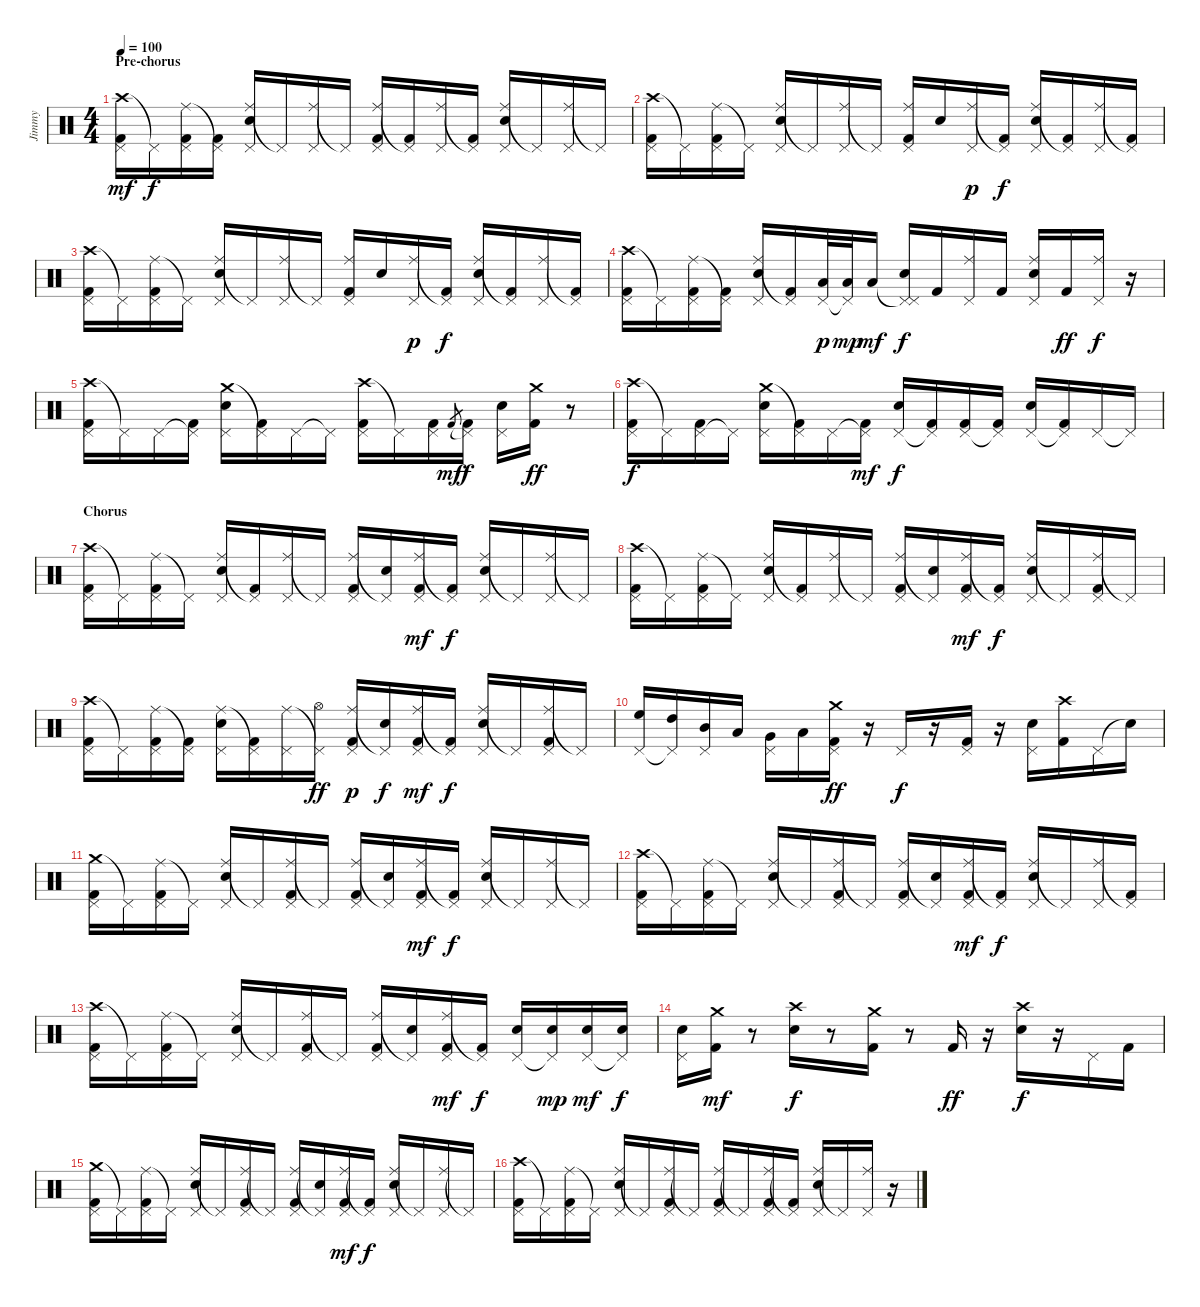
\track ("Jimmy" "Jimmy") {instrument percussion}
\staff {score}
\articulation defaults
\ts (4 4)
\section ("" "Pre-chorus")
\tempo 100
\clef neutral
\ks c
("Crash high (hit)" "Pedal Hi-Hat (hit)" "Kick (hit) 2").16{dy mf} "Pedal Hi-Hat (hit)"{t}.16{dy f} ("Ride (middle)" "Pedal Hi-Hat (hit)" "Kick (hit) 2").16 ("Pedal Hi-Hat (hit)"{t} "Kick (hit) 2").16 ("Ride (middle)" "Pedal Hi-Hat (hit)" "Electric Snare (hit)").16 "Pedal Hi-Hat (hit)"{t}.16 ("Ride (middle)" "Pedal Hi-Hat (hit)").16 "Pedal Hi-Hat (hit)"{t}.16 ("Ride (middle)" "Pedal Hi-Hat (hit)" "Kick (hit) 2").16 ("Pedal Hi-Hat (hit)"{t} "Kick (hit) 2").16 ("Ride (middle)" "Pedal Hi-Hat (hit)").16 ("Pedal Hi-Hat (hit)"{t} "Kick (hit) 2").16 ("Ride (middle)" "Pedal Hi-Hat (hit)" "Electric Snare (hit)").16 "Pedal Hi-Hat (hit)"{t}.16 ("Ride (middle)" "Pedal Hi-Hat (hit)").16 "Pedal Hi-Hat (hit)"{t}.16 |
("Crash high (hit)" "Pedal Hi-Hat (hit)" "Kick (hit) 2").16 "Pedal Hi-Hat (hit)"{t}.16 ("Ride (middle)" "Pedal Hi-Hat (hit)" "Kick (hit) 2").16 "Pedal Hi-Hat (hit)"{t}.16 ("Ride (middle)" "Pedal Hi-Hat (hit)" "Electric Snare (hit)").16 "Pedal Hi-Hat (hit)"{t}.16 ("Ride (middle)" "Pedal Hi-Hat (hit)").16 "Pedal Hi-Hat (hit)"{t}.16 ("Ride (middle)" "Pedal Hi-Hat (hit)" "Kick (hit) 2").16 "Electric Snare (hit)".16 ("Ride (middle)" "Pedal Hi-Hat (hit)").16{dy p} ("Pedal Hi-Hat (hit)"{t} "Kick (hit) 2").16{dy f} ("Ride (middle)" "Pedal Hi-Hat (hit)" "Electric Snare (hit)").16 ("Pedal Hi-Hat (hit)"{t} "Kick (hit) 2").16 ("Ride (middle)" "Pedal Hi-Hat (hit)").16 ("Pedal Hi-Hat (hit)"{t} "Kick (hit) 2").16 |
("Crash high (hit)" "Pedal Hi-Hat (hit)" "Kick (hit) 2").16 "Pedal Hi-Hat (hit)"{t}.16 ("Ride (middle)" "Pedal Hi-Hat (hit)" "Kick (hit) 2").16 "Pedal Hi-Hat (hit)"{t}.16 ("Ride (middle)" "Pedal Hi-Hat (hit)" "Electric Snare (hit)").16 "Pedal Hi-Hat (hit)"{t}.16 ("Ride (middle)" "Pedal Hi-Hat (hit)").16 "Pedal Hi-Hat (hit)"{t}.16 ("Ride (middle)" "Pedal Hi-Hat (hit)" "Kick (hit) 2").16 "Electric Snare (hit)".16 ("Ride (middle)" "Pedal Hi-Hat (hit)").16{dy p} ("Pedal Hi-Hat (hit)"{t} "Kick (hit) 2").16{dy f} ("Ride (middle)" "Pedal Hi-Hat (hit)" "Electric Snare (hit)").16 ("Pedal Hi-Hat (hit)"{t} "Kick (hit) 2").16 ("Ride (middle)" "Pedal Hi-Hat (hit)").16 ("Pedal Hi-Hat (hit)"{t} "Kick (hit) 2").16 |
("Crash high (hit)" "Pedal Hi-Hat (hit)" "Kick (hit) 2").16 "Pedal Hi-Hat (hit)"{t}.16 ("Ride (middle)" "Pedal Hi-Hat (hit)" "Kick (hit) 2").16 ("Pedal Hi-Hat (hit)"{t} "Kick (hit) 2").16 ("Ride (middle)" "Pedal Hi-Hat (hit)" "Electric Snare (hit)").16 ("Pedal Hi-Hat (hit)"{t} "Kick (hit) 2").16 ("Pedal Hi-Hat (hit)" "Low Tom (hit)").32{dy p} ("Pedal Hi-Hat (hit)"{t} "Low Tom (hit)").32{dy mp} "Low Tom (hit)".16{dy mf} ("Pedal Hi-Hat (hit)"{t} "Pedal Hi-Hat (hit)" "Electric Snare (hit)").16{dy f} "Kick (hit) 2".16 ("Ride (middle)" "Pedal Hi-Hat (hit)").16 "Kick (hit) 2".16 ("Ride (middle)" "Pedal Hi-Hat (hit)" "Electric Snare (hit)").16 "Kick (hit) 2".16{dy ff} ("Ride (middle)" "Pedal Hi-Hat (hit)").16{dy f} r.16 |
("Crash high (hit)" "Pedal Hi-Hat (hit)" "Kick (hit) 2").16 "Pedal Hi-Hat (hit)"{t}.16 "Pedal Hi-Hat (hit)".16 ("Pedal Hi-Hat (hit)"{t} "Kick (hit) 2").16 ("Crash medium (hit)" "Pedal Hi-Hat (hit)" "Electric Snare (hit)").16 ("Pedal Hi-Hat (hit)"{t} "Kick (hit) 2").16 "Pedal Hi-Hat (hit)".16 "Pedal Hi-Hat (hit)"{t}.16 ("Crash high (hit)" "Pedal Hi-Hat (hit)" "Kick (hit) 2").16 "Pedal Hi-Hat (hit)"{t}.16 ("Pedal Hi-Hat (hit)" "Kick (hit) 2").16 "Kick (hit) 2".8{gr dy mf} ("Pedal Hi-Hat (hit)"{t} "Kick (hit) 2").16{dy f} ("Pedal Hi-Hat (hit)" "Electric Snare (hit)").16 ("Crash medium (hit)" "Kick (hit) 2").16{dy ff} r.8 |
("Crash high (hit)" "Pedal Hi-Hat (hit)" "Kick (hit) 2").16{dy f} "Pedal Hi-Hat (hit)"{t}.16 ("Pedal Hi-Hat (hit)" "Kick (hit) 2").16 "Pedal Hi-Hat (hit)"{t}.16 ("Crash medium (hit)" "Pedal Hi-Hat (hit)" "Electric Snare (hit)").16 ("Pedal Hi-Hat (hit)"{t} "Kick (hit) 2").16 "Pedal Hi-Hat (hit)".16 ("Pedal Hi-Hat (hit)"{t} "Kick (hit) 2").16{dy mf} ("Pedal Hi-Hat (hit)" "Electric Snare (hit)").16{dy f} ("Pedal Hi-Hat (hit)"{t} "Kick (hit) 2").16 ("Pedal Hi-Hat (hit)" "Kick (hit) 2").16 ("Pedal Hi-Hat (hit)"{t} "Kick (hit) 2").16 ("Pedal Hi-Hat (hit)" "Electric Snare (hit)").16 ("Pedal Hi-Hat (hit)"{t} "Kick (hit) 2").16 "Pedal Hi-Hat (hit)".16 "Pedal Hi-Hat (hit)"{t}.16 |
\section ("" "Chorus")
("Crash high (hit)" "Pedal Hi-Hat (hit)" "Kick (hit) 2").16 "Pedal Hi-Hat (hit)"{t}.16 ("Ride (middle)" "Pedal Hi-Hat (hit)" "Kick (hit) 2").16 "Pedal Hi-Hat (hit)"{t}.16 ("Ride (middle)" "Pedal Hi-Hat (hit)" "Electric Snare (hit)").16 ("Pedal Hi-Hat (hit)"{t} "Kick (hit) 2").16 ("Ride (middle)" "Pedal Hi-Hat (hit)").16 "Pedal Hi-Hat (hit)"{t}.16 ("Ride (middle)" "Pedal Hi-Hat (hit)" "Kick (hit) 2").16 ("Pedal Hi-Hat (hit)"{t} "Electric Snare (hit)").16 ("Ride (middle)" "Pedal Hi-Hat (hit)" "Kick (hit) 2").16{dy mf} ("Pedal Hi-Hat (hit)"{t} "Kick (hit) 2").16{dy f} ("Ride (middle)" "Pedal Hi-Hat (hit)" "Electric Snare (hit)").16 "Pedal Hi-Hat (hit)"{t}.16 ("Ride (middle)" "Pedal Hi-Hat (hit)").16 "Pedal Hi-Hat (hit)"{t}.16 |
("Crash high (hit)" "Pedal Hi-Hat (hit)" "Kick (hit) 2").16 "Pedal Hi-Hat (hit)"{t}.16 ("Ride (middle)" "Pedal Hi-Hat (hit)" "Kick (hit) 2").16 "Pedal Hi-Hat (hit)"{t}.16 ("Ride (middle)" "Pedal Hi-Hat (hit)" "Electric Snare (hit)").16 ("Pedal Hi-Hat (hit)"{t} "Kick (hit) 2").16 ("Ride (middle)" "Pedal Hi-Hat (hit)").16 "Pedal Hi-Hat (hit)"{t}.16 ("Ride (middle)" "Pedal Hi-Hat (hit)" "Kick (hit) 2").16 ("Pedal Hi-Hat (hit)"{t} "Electric Snare (hit)").16 ("Ride (middle)" "Pedal Hi-Hat (hit)" "Kick (hit) 2").16{dy mf} ("Pedal Hi-Hat (hit)"{t} "Kick (hit) 2").16{dy f} ("Ride (middle)" "Pedal Hi-Hat (hit)" "Electric Snare (hit)").16 "Pedal Hi-Hat (hit)"{t}.16 ("Ride (middle)" "Pedal Hi-Hat (hit)" "Kick (hit) 2").16 "Pedal Hi-Hat (hit)"{t}.16 |
("Crash high (hit)" "Pedal Hi-Hat (hit)" "Kick (hit) 2").16 "Pedal Hi-Hat (hit)"{t}.16 ("Ride (middle)" "Pedal Hi-Hat (hit)" "Kick (hit) 2").16 ("Pedal Hi-Hat (hit)"{t} "Kick (hit) 2").16 ("Ride (middle)" "Pedal Hi-Hat (hit)" "Electric Snare (hit)").16 ("Pedal Hi-Hat (hit)"{t} "Kick (hit) 2").16 ("Ride (middle)" "Pedal Hi-Hat (hit)").16 ("Pedal Hi-Hat (hit)"{t} "Hi-Hat (open)").16{dy ff} ("Ride (middle)" "Pedal Hi-Hat (hit)" "Kick (hit) 2").16{dy p} ("Pedal Hi-Hat (hit)"{t} "Electric Snare (hit)").16{dy f} ("Ride (middle)" "Pedal Hi-Hat (hit)" "Kick (hit) 2").16{dy mf} ("Pedal Hi-Hat (hit)"{t} "Kick (hit) 2").16{dy f} ("Ride (middle)" "Pedal Hi-Hat (hit)" "Electric Snare (hit)").16 "Pedal Hi-Hat (hit)"{t}.16 ("Ride (middle)" "Pedal Hi-Hat (hit)" "Kick (hit) 2").16 "Pedal Hi-Hat (hit)"{t}.16 |
("Pedal Hi-Hat (hit)" "High Floor Tom (hit)").16 ("Pedal Hi-Hat (hit)"{t} "High Tom (hit)").16 ("Pedal Hi-Hat (hit)" "Mid Tom (hit)").16 "Low Tom (hit)".16 ("Pedal Hi-Hat (hit)" "Very Low Tom (hit)").16 "Low Floor Tom (hit)".16 ("Crash medium (hit)" "Pedal Hi-Hat (hit)" "Kick (hit) 2").16{dy ff} r.16 "Pedal Hi-Hat (hit)".16{dy f} r.16 ("Pedal Hi-Hat (hit)" "Kick (hit) 2").16 r.16 ("Pedal Hi-Hat (hit)" "Electric Snare (hit)").16 ("Crash high (hit)" "Kick (hit) 2").16 "Pedal Hi-Hat (hit)".16 "Snare (hit)"{t}.16 |
("Crash medium (hit)" "Pedal Hi-Hat (hit)" "Kick (hit) 2").16 "Pedal Hi-Hat (hit)"{t}.16 ("Ride (middle)" "Pedal Hi-Hat (hit)" "Kick (hit) 2").16 "Pedal Hi-Hat (hit)"{t}.16 ("Ride (middle)" "Pedal Hi-Hat (hit)" "Electric Snare (hit)").16 "Pedal Hi-Hat (hit)"{t}.16 ("Ride (middle)" "Pedal Hi-Hat (hit)" "Kick (hit) 2").16 "Pedal Hi-Hat (hit)"{t}.16 ("Ride (middle)" "Pedal Hi-Hat (hit)" "Kick (hit) 2").16 ("Pedal Hi-Hat (hit)"{t} "Electric Snare (hit)").16 ("Ride (middle)" "Pedal Hi-Hat (hit)" "Kick (hit) 2").16{dy mf} ("Pedal Hi-Hat (hit)"{t} "Kick (hit) 2").16{dy f} ("Ride (middle)" "Pedal Hi-Hat (hit)" "Electric Snare (hit)").16 "Pedal Hi-Hat (hit)"{t}.16 ("Ride (middle)" "Pedal Hi-Hat (hit)").16 "Pedal Hi-Hat (hit)"{t}.16 |
("Crash high (hit)" "Pedal Hi-Hat (hit)" "Kick (hit) 2").16 "Pedal Hi-Hat (hit)"{t}.16 ("Ride (middle)" "Pedal Hi-Hat (hit)" "Kick (hit) 2").16 "Pedal Hi-Hat (hit)"{t}.16 ("Ride (middle)" "Pedal Hi-Hat (hit)" "Electric Snare (hit)").16 "Pedal Hi-Hat (hit)"{t}.16 ("Ride (middle)" "Pedal Hi-Hat (hit)" "Kick (hit) 2").16 "Pedal Hi-Hat (hit)"{t}.16 ("Ride (middle)" "Pedal Hi-Hat (hit)" "Kick (hit) 2").16 ("Pedal Hi-Hat (hit)"{t} "Electric Snare (hit)").16 ("Ride (middle)" "Pedal Hi-Hat (hit)" "Kick (hit) 2").16{dy mf} ("Pedal Hi-Hat (hit)"{t} "Kick (hit) 2").16{dy f} ("Ride (middle)" "Pedal Hi-Hat (hit)" "Electric Snare (hit)").16 "Pedal Hi-Hat (hit)"{t}.16 ("Ride (middle)" "Pedal Hi-Hat (hit)").16 ("Pedal Hi-Hat (hit)"{t} "Kick (hit) 2").16 |
("Crash high (hit)" "Pedal Hi-Hat (hit)" "Kick (hit) 2").16 "Pedal Hi-Hat (hit)"{t}.16 ("Ride (middle)" "Pedal Hi-Hat (hit)" "Kick (hit) 2").16 "Pedal Hi-Hat (hit)"{t}.16 ("Ride (middle)" "Pedal Hi-Hat (hit)" "Electric Snare (hit)").16 "Pedal Hi-Hat (hit)"{t}.16 ("Ride (middle)" "Pedal Hi-Hat (hit)" "Kick (hit) 2").16 "Pedal Hi-Hat (hit)"{t}.16 ("Ride (middle)" "Pedal Hi-Hat (hit)" "Kick (hit) 2").16 ("Pedal Hi-Hat (hit)"{t} "Electric Snare (hit)").16 ("Ride (middle)" "Pedal Hi-Hat (hit)" "Kick (hit) 2").16{dy mf} ("Pedal Hi-Hat (hit)"{t} "Kick (hit) 2").16{dy f} ("Pedal Hi-Hat (hit)" "Electric Snare (hit)").16 ("Pedal Hi-Hat (hit)"{t} "Electric Snare (hit)").16{dy mp} ("Pedal Hi-Hat (hit)" "Electric Snare (hit)").16{dy mf} ("Pedal Hi-Hat (hit)"{t} "Electric Snare (hit)").16{dy f} |
("Pedal Hi-Hat (hit)" "Electric Snare (hit)").16 ("Crash medium (hit)" "Kick (hit) 2").16{dy mf} r.8 ("Crash high (hit)" "Electric Snare (hit)").16{dy f} r.8 ("Crash medium (hit)" "Kick (hit) 2").16 r.8 "Kick (hit) 2".16{dy ff} r.16 ("Crash high (hit)" "Electric Snare (hit)").16{dy f} r.16 "Pedal Hi-Hat (hit)".16 "Kick (hit) 2".16 |
("Crash medium (hit)" "Pedal Hi-Hat (hit)" "Kick (hit) 2").16 "Pedal Hi-Hat (hit)"{t}.16 ("Ride (middle)" "Pedal Hi-Hat (hit)" "Kick (hit) 2").16 "Pedal Hi-Hat (hit)"{t}.16 ("Ride (middle)" "Pedal Hi-Hat (hit)" "Electric Snare (hit)").16 "Pedal Hi-Hat (hit)"{t}.16 ("Ride (middle)" "Pedal Hi-Hat (hit)" "Kick (hit) 2").16 "Pedal Hi-Hat (hit)"{t}.16 ("Ride (middle)" "Pedal Hi-Hat (hit)" "Kick (hit) 2").16 ("Pedal Hi-Hat (hit)"{t} "Electric Snare (hit)").16 ("Ride (middle)" "Pedal Hi-Hat (hit)" "Kick (hit) 2").16{dy mf} ("Pedal Hi-Hat (hit)"{t} "Kick (hit) 2").16{dy f} ("Ride (middle)" "Pedal Hi-Hat (hit)" "Electric Snare (hit)").16 "Pedal Hi-Hat (hit)"{t}.16 ("Ride (middle)" "Pedal Hi-Hat (hit)").16 "Pedal Hi-Hat (hit)"{t}.16 |
("Crash high (hit)" "Pedal Hi-Hat (hit)" "Kick (hit) 2").16 "Pedal Hi-Hat (hit)"{t}.16 ("Ride (middle)" "Pedal Hi-Hat (hit)" "Kick (hit) 2").16 "Pedal Hi-Hat (hit)"{t}.16 ("Ride (middle)" "Pedal Hi-Hat (hit)" "Electric Snare (hit)").16 "Pedal Hi-Hat (hit)"{t}.16 ("Ride (middle)" "Pedal Hi-Hat (hit)" "Kick (hit) 2").16 "Pedal Hi-Hat (hit)"{t}.16 ("Ride (middle)" "Pedal Hi-Hat (hit)" "Kick (hit) 2").16 "Pedal Hi-Hat (hit)"{t}.16 ("Ride (middle)" "Pedal Hi-Hat (hit)" "Kick (hit) 2").16 ("Pedal Hi-Hat (hit)"{t} "Kick (hit) 2").16 ("Ride (middle)" "Pedal Hi-Hat (hit)" "Electric Snare (hit)").16 "Pedal Hi-Hat (hit)"{t}.16 ("Ride (middle)" "Pedal Hi-Hat (hit)").16 r.16
